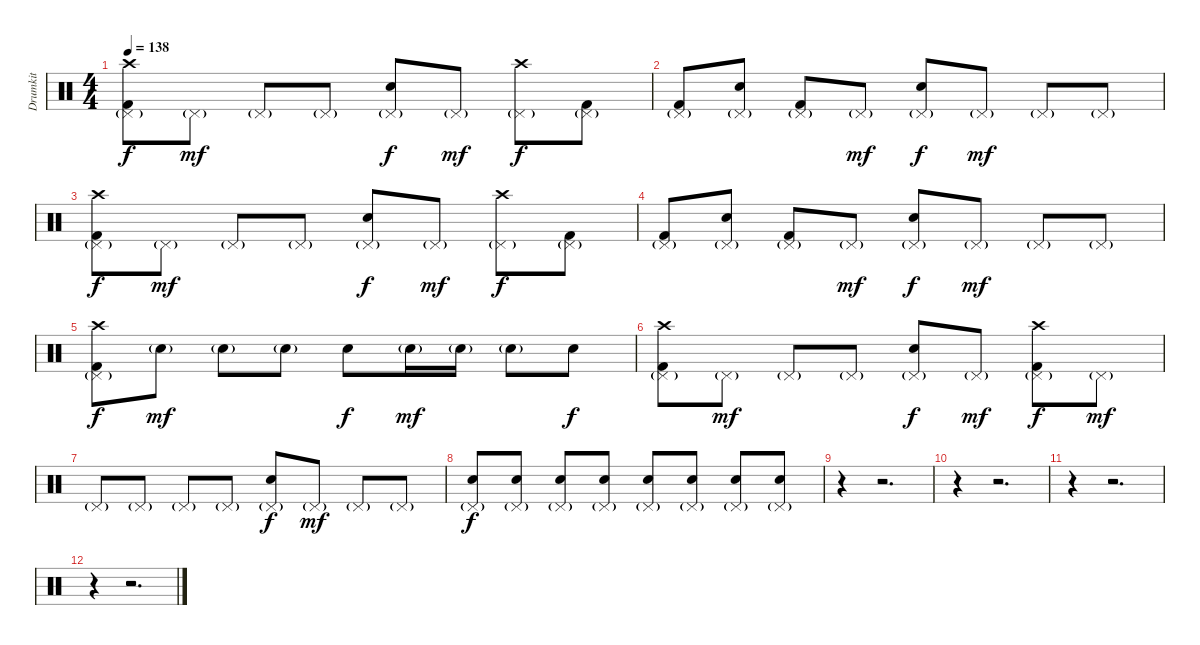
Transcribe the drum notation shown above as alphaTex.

\track ("Drumkit" "Drumkit") {instrument percussion}
\staff {score}
\articulation defaults
\ts (4 4)
\tempo 138
\clef neutral
\ks c
("Crash high (hit)" "Pedal Hi-Hat (hit)"{g} "Kick (hit) 2").8{dy f} "Pedal Hi-Hat (hit)"{g}.8{dy mf} "Pedal Hi-Hat (hit)"{g}.8 "Pedal Hi-Hat (hit)"{g}.8 ("Snare (hit) 2" "Pedal Hi-Hat (hit)"{g}).8{dy f} "Pedal Hi-Hat (hit)"{g}.8{dy mf} ("Crash high (hit)" "Pedal Hi-Hat (hit)"{g}).8{dy f} ("Pedal Hi-Hat (hit)"{g} "Kick (hit) 2").8 |
("Pedal Hi-Hat (hit)"{g} "Kick (hit) 2").8 ("Snare (hit) 2" "Pedal Hi-Hat (hit)"{g}).8 ("Pedal Hi-Hat (hit)"{g} "Kick (hit) 2").8 "Pedal Hi-Hat (hit)"{g}.8{dy mf} ("Snare (hit) 2" "Pedal Hi-Hat (hit)"{g}).8{dy f} "Pedal Hi-Hat (hit)"{g}.8{dy mf} "Pedal Hi-Hat (hit)"{g}.8 "Pedal Hi-Hat (hit)"{g}.8 |
("Crash high (hit)" "Pedal Hi-Hat (hit)"{g} "Kick (hit) 2").8{dy f} "Pedal Hi-Hat (hit)"{g}.8{dy mf} "Pedal Hi-Hat (hit)"{g}.8 "Pedal Hi-Hat (hit)"{g}.8 ("Snare (hit) 2" "Pedal Hi-Hat (hit)"{g}).8{dy f} "Pedal Hi-Hat (hit)"{g}.8{dy mf} ("Crash high (hit)" "Pedal Hi-Hat (hit)"{g}).8{dy f} ("Pedal Hi-Hat (hit)"{g} "Kick (hit) 2").8 |
("Pedal Hi-Hat (hit)"{g} "Kick (hit) 2").8 ("Snare (hit) 2" "Pedal Hi-Hat (hit)"{g}).8 ("Pedal Hi-Hat (hit)"{g} "Kick (hit) 2").8 "Pedal Hi-Hat (hit)"{g}.8{dy mf} ("Snare (hit) 2" "Pedal Hi-Hat (hit)"{g}).8{dy f} "Pedal Hi-Hat (hit)"{g}.8{dy mf} "Pedal Hi-Hat (hit)"{g}.8 "Pedal Hi-Hat (hit)"{g}.8 |
("Crash high (hit)" "Pedal Hi-Hat (hit)"{g} "Kick (hit) 2").8{dy f} "Snare (hit) 2"{g}.8{dy mf} "Snare (hit) 2"{g}.8 "Snare (hit) 2"{g}.8 "Snare (hit) 2".8{dy f} "Snare (hit) 2"{g}.16{dy mf} "Snare (hit) 2"{g}.16 "Snare (hit) 2"{g}.8 "Snare (hit) 2".8{dy f} |
("Crash high (hit)" "Pedal Hi-Hat (hit)"{g} "Kick (hit) 2").8 "Pedal Hi-Hat (hit)"{g}.8{dy mf} "Pedal Hi-Hat (hit)"{g}.8 "Pedal Hi-Hat (hit)"{g}.8 ("Snare (hit) 2" "Pedal Hi-Hat (hit)"{g}).8{dy f} "Pedal Hi-Hat (hit)"{g}.8{dy mf} ("Crash high (hit)" "Pedal Hi-Hat (hit)"{g} "Kick (hit) 2").8{dy f} "Pedal Hi-Hat (hit)"{g}.8{dy mf} |
"Pedal Hi-Hat (hit)"{g}.8 "Pedal Hi-Hat (hit)"{g}.8 "Pedal Hi-Hat (hit)"{g}.8 "Pedal Hi-Hat (hit)"{g}.8 ("Snare (hit) 2" "Pedal Hi-Hat (hit)"{g}).8{dy f} "Pedal Hi-Hat (hit)"{g}.8{dy mf} "Pedal Hi-Hat (hit)"{g}.8 "Pedal Hi-Hat (hit)"{g}.8 |
("Snare (hit) 2" "Pedal Hi-Hat (hit)"{g}).8{dy f} ("Snare (hit) 2" "Pedal Hi-Hat (hit)"{g}).8 ("Snare (hit) 2" "Pedal Hi-Hat (hit)"{g}).8 ("Snare (hit) 2" "Pedal Hi-Hat (hit)"{g}).8 ("Snare (hit) 2" "Pedal Hi-Hat (hit)"{g}).8 ("Snare (hit) 2" "Pedal Hi-Hat (hit)"{g}).8 ("Snare (hit) 2" "Pedal Hi-Hat (hit)"{g}).8 ("Snare (hit) 2" "Pedal Hi-Hat (hit)"{g}).8 |
r.4 r.2{d} |
r.4 r.2{d} |
r.4 r.2{d} |
r.4 r.2{d}
